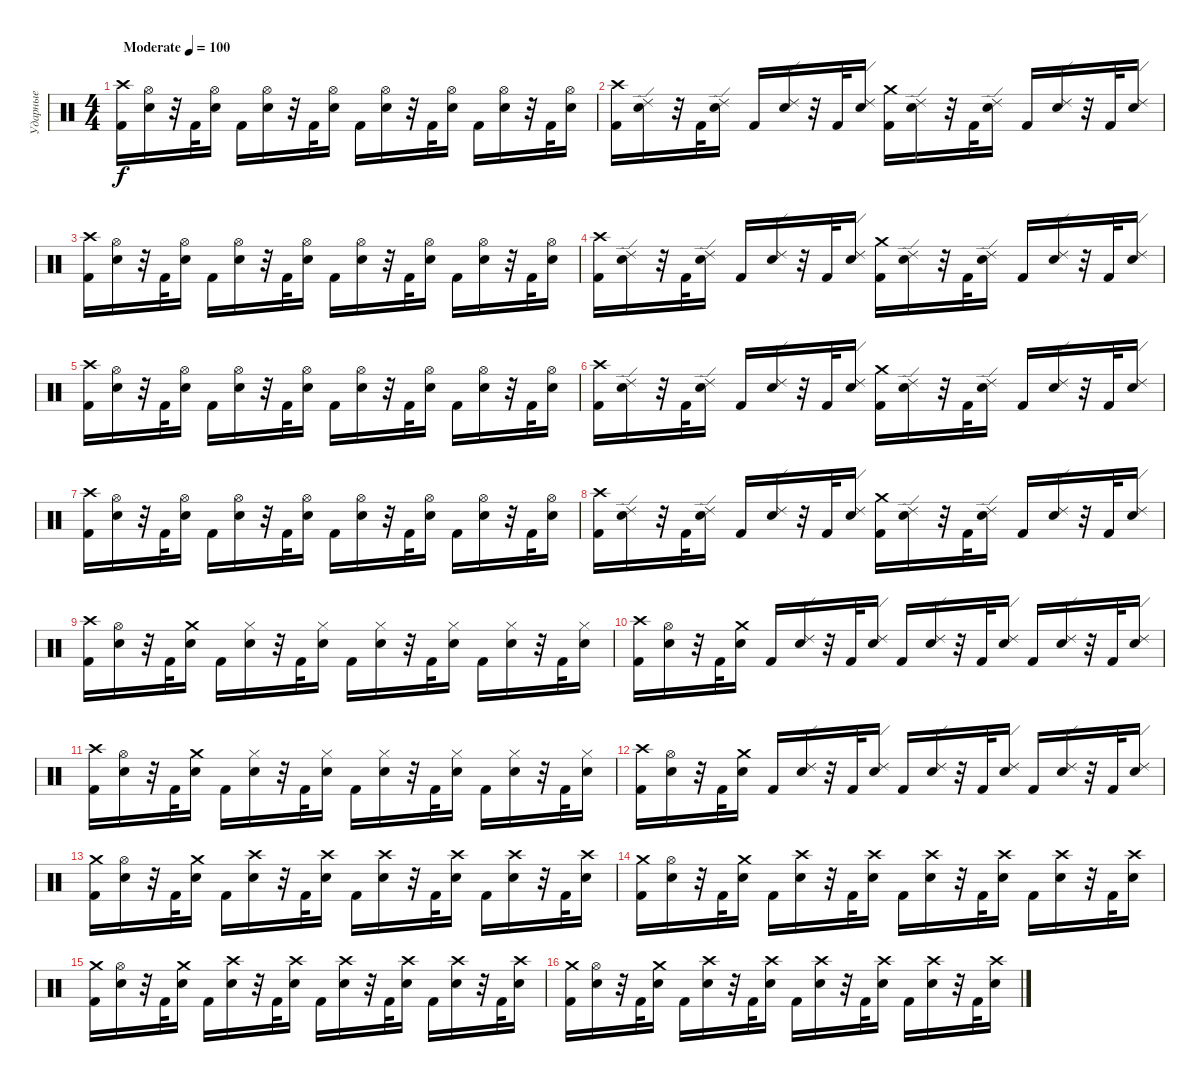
\track ("Ударные" "Ударные") {instrument percussion}
\staff {score}
\articulation defaults
\ts (4 4)
\tempo (100 "Moderate")
\clef neutral
\ks c
("Crash high (hit)" "Kick (hit) 2").16{dy f} ("Hi-Hat (open)" "Electric Snare (hit)").16 r.32 "Kick (hit) 2".32 ("Hi-Hat (open)" "Electric Snare (hit)").16 "Kick (hit) 2".16 ("Hi-Hat (open)" "Electric Snare (hit)").16 r.32 "Kick (hit) 2".32 ("Hi-Hat (open)" "Electric Snare (hit)").16 "Kick (hit) 2".16 ("Hi-Hat (open)" "Electric Snare (hit)").16 r.32 "Kick (hit) 2".32 ("Hi-Hat (open)" "Electric Snare (hit)").16 "Kick (hit) 2".16 ("Hi-Hat (open)" "Electric Snare (hit)").16 r.32 "Kick (hit) 2".32 ("Hi-Hat (open)" "Electric Snare (hit)").16 |
("Crash high (hit)" "Kick (hit) 2").16 ("Ride (edge) 2" "Electric Snare (hit)").16 r.32 "Kick (hit) 2".32 ("Ride (edge) 2" "Electric Snare (hit)").16 "Kick (hit) 2".16 ("Ride (edge) 2" "Electric Snare (hit)").16 r.32 "Kick (hit) 2".32 ("Ride (edge) 2" "Electric Snare (hit)").16 ("Crash medium (hit)" "Kick (hit) 2").16 ("Ride (edge) 2" "Electric Snare (hit)").16 r.32 "Kick (hit) 2".32 ("Ride (edge) 2" "Electric Snare (hit)").16 "Kick (hit) 2".16 ("Ride (edge) 2" "Electric Snare (hit)").16 r.32 "Kick (hit) 2".32 ("Ride (edge) 2" "Electric Snare (hit)").16 |
("Crash high (hit)" "Kick (hit) 2").16 ("Hi-Hat (open)" "Electric Snare (hit)").16 r.32 "Kick (hit) 2".32 ("Hi-Hat (open)" "Electric Snare (hit)").16 "Kick (hit) 2".16 ("Hi-Hat (open)" "Electric Snare (hit)").16 r.32 "Kick (hit) 2".32 ("Hi-Hat (open)" "Electric Snare (hit)").16 "Kick (hit) 2".16 ("Hi-Hat (open)" "Electric Snare (hit)").16 r.32 "Kick (hit) 2".32 ("Hi-Hat (open)" "Electric Snare (hit)").16 "Kick (hit) 2".16 ("Hi-Hat (open)" "Electric Snare (hit)").16 r.32 "Kick (hit) 2".32 ("Hi-Hat (open)" "Electric Snare (hit)").16 |
("Crash high (hit)" "Kick (hit) 2").16 ("Ride (edge) 2" "Electric Snare (hit)").16 r.32 "Kick (hit) 2".32 ("Ride (edge) 2" "Electric Snare (hit)").16 "Kick (hit) 2".16 ("Ride (edge) 2" "Electric Snare (hit)").16 r.32 "Kick (hit) 2".32 ("Ride (edge) 2" "Electric Snare (hit)").16 ("Crash medium (hit)" "Kick (hit) 2").16 ("Ride (edge) 2" "Electric Snare (hit)").16 r.32 "Kick (hit) 2".32 ("Ride (edge) 2" "Electric Snare (hit)").16 "Kick (hit) 2".16 ("Ride (edge) 2" "Electric Snare (hit)").16 r.32 "Kick (hit) 2".32 ("Ride (edge) 2" "Electric Snare (hit)").16 |
("Crash high (hit)" "Kick (hit) 2").16 ("Hi-Hat (open)" "Electric Snare (hit)").16 r.32 "Kick (hit) 2".32 ("Hi-Hat (open)" "Electric Snare (hit)").16 "Kick (hit) 2".16 ("Hi-Hat (open)" "Electric Snare (hit)").16 r.32 "Kick (hit) 2".32 ("Hi-Hat (open)" "Electric Snare (hit)").16 "Kick (hit) 2".16 ("Hi-Hat (open)" "Electric Snare (hit)").16 r.32 "Kick (hit) 2".32 ("Hi-Hat (open)" "Electric Snare (hit)").16 "Kick (hit) 2".16 ("Hi-Hat (open)" "Electric Snare (hit)").16 r.32 "Kick (hit) 2".32 ("Hi-Hat (open)" "Electric Snare (hit)").16 |
("Crash high (hit)" "Kick (hit) 2").16 ("Ride (edge) 2" "Electric Snare (hit)").16 r.32 "Kick (hit) 2".32 ("Ride (edge) 2" "Electric Snare (hit)").16 "Kick (hit) 2".16 ("Ride (edge) 2" "Electric Snare (hit)").16 r.32 "Kick (hit) 2".32 ("Ride (edge) 2" "Electric Snare (hit)").16 ("Crash medium (hit)" "Kick (hit) 2").16 ("Ride (edge) 2" "Electric Snare (hit)").16 r.32 "Kick (hit) 2".32 ("Ride (edge) 2" "Electric Snare (hit)").16 "Kick (hit) 2".16 ("Ride (edge) 2" "Electric Snare (hit)").16 r.32 "Kick (hit) 2".32 ("Ride (edge) 2" "Electric Snare (hit)").16 |
("Crash high (hit)" "Kick (hit) 2").16 ("Hi-Hat (open)" "Electric Snare (hit)").16 r.32 "Kick (hit) 2".32 ("Hi-Hat (open)" "Electric Snare (hit)").16 "Kick (hit) 2".16 ("Hi-Hat (open)" "Electric Snare (hit)").16 r.32 "Kick (hit) 2".32 ("Hi-Hat (open)" "Electric Snare (hit)").16 "Kick (hit) 2".16 ("Hi-Hat (open)" "Electric Snare (hit)").16 r.32 "Kick (hit) 2".32 ("Hi-Hat (open)" "Electric Snare (hit)").16 "Kick (hit) 2".16 ("Hi-Hat (open)" "Electric Snare (hit)").16 r.32 "Kick (hit) 2".32 ("Hi-Hat (open)" "Electric Snare (hit)").16 |
("Crash high (hit)" "Kick (hit) 2").16 ("Ride (edge) 2" "Electric Snare (hit)").16 r.32 "Kick (hit) 2".32 ("Ride (edge) 2" "Electric Snare (hit)").16 "Kick (hit) 2".16 ("Ride (edge) 2" "Electric Snare (hit)").16 r.32 "Kick (hit) 2".32 ("Ride (edge) 2" "Electric Snare (hit)").16 ("Crash medium (hit)" "Kick (hit) 2").16 ("Ride (edge) 2" "Electric Snare (hit)").16 r.32 "Kick (hit) 2".32 ("Ride (edge) 2" "Electric Snare (hit)").16 "Kick (hit) 2".16 ("Ride (edge) 2" "Electric Snare (hit)").16 r.32 "Kick (hit) 2".32 ("Ride (edge) 2" "Electric Snare (hit)").16 |
("Crash high (hit)" "Kick (hit) 2").16 ("Hi-Hat (open)" "Electric Snare (hit)").16 r.32 "Kick (hit) 2".32 ("Crash medium (hit)" "Electric Snare (hit)").16 "Kick (hit) 2".16 ("Hi-Hat (closed)" "Electric Snare (hit)").16 r.32 "Kick (hit) 2".32 ("Hi-Hat (closed)" "Electric Snare (hit)").16 "Kick (hit) 2".16 ("Hi-Hat (closed)" "Electric Snare (hit)").16 r.32 "Kick (hit) 2".32 ("Hi-Hat (closed)" "Electric Snare (hit)").16 "Kick (hit) 2".16 ("Hi-Hat (closed)" "Electric Snare (hit)").16 r.32 "Kick (hit) 2".32 ("Hi-Hat (closed)" "Electric Snare (hit)").16 |
("Crash high (hit)" "Kick (hit) 2").16 ("Hi-Hat (open)" "Electric Snare (hit)").16 r.32 "Kick (hit) 2".32 ("Crash medium (hit)" "Electric Snare (hit)").16 "Kick (hit) 2".16 ("Ride (edge) 2" "Electric Snare (hit)").16 r.32 "Kick (hit) 2".32 ("Ride (edge) 2" "Electric Snare (hit)").16 "Kick (hit) 2".16 ("Ride (edge) 2" "Electric Snare (hit)").16 r.32 "Kick (hit) 2".32 ("Ride (edge) 2" "Electric Snare (hit)").16 "Kick (hit) 2".16 ("Ride (edge) 2" "Electric Snare (hit)").16 r.32 "Kick (hit) 2".32 ("Ride (edge) 2" "Electric Snare (hit)").16 |
("Crash high (hit)" "Kick (hit) 2").16 ("Hi-Hat (open)" "Electric Snare (hit)").16 r.32 "Kick (hit) 2".32 ("Crash medium (hit)" "Electric Snare (hit)").16 "Kick (hit) 2".16 ("Hi-Hat (closed)" "Electric Snare (hit)").16 r.32 "Kick (hit) 2".32 ("Hi-Hat (closed)" "Electric Snare (hit)").16 "Kick (hit) 2".16 ("Hi-Hat (closed)" "Electric Snare (hit)").16 r.32 "Kick (hit) 2".32 ("Hi-Hat (closed)" "Electric Snare (hit)").16 "Kick (hit) 2".16 ("Hi-Hat (closed)" "Electric Snare (hit)").16 r.32 "Kick (hit) 2".32 ("Hi-Hat (closed)" "Electric Snare (hit)").16 |
("Crash high (hit)" "Kick (hit) 2").16 ("Hi-Hat (open)" "Electric Snare (hit)").16 r.32 "Kick (hit) 2".32 ("Crash medium (hit)" "Electric Snare (hit)").16 "Kick (hit) 2".16 ("Ride (edge) 2" "Electric Snare (hit)").16 r.32 "Kick (hit) 2".32 ("Ride (edge) 2" "Electric Snare (hit)").16 "Kick (hit) 2".16 ("Ride (edge) 2" "Electric Snare (hit)").16 r.32 "Kick (hit) 2".32 ("Ride (edge) 2" "Electric Snare (hit)").16 "Kick (hit) 2".16 ("Ride (edge) 2" "Electric Snare (hit)").16 r.32 "Kick (hit) 2".32 ("Ride (edge) 2" "Electric Snare (hit)").16 |
("Crash medium (hit)" "Kick (hit) 2").16 ("Hi-Hat (open)" "Electric Snare (hit)").16 r.32 "Kick (hit) 2".32 ("Crash medium (hit)" "Electric Snare (hit)").16 "Kick (hit) 2".16 ("Crash high (hit)" "Electric Snare (hit)").16 r.32 "Kick (hit) 2".32 ("Crash high (hit)" "Electric Snare (hit)").16 "Kick (hit) 2".16 ("Crash high (hit)" "Electric Snare (hit)").16 r.32 "Kick (hit) 2".32 ("Crash high (hit)" "Electric Snare (hit)").16 "Kick (hit) 2".16 ("Crash high (hit)" "Electric Snare (hit)").16 r.32 "Kick (hit) 2".32 ("Crash high (hit)" "Electric Snare (hit)").16 |
("Crash medium (hit)" "Kick (hit) 2").16 ("Hi-Hat (open)" "Electric Snare (hit)").16 r.32 "Kick (hit) 2".32 ("Crash medium (hit)" "Electric Snare (hit)").16 "Kick (hit) 2".16 ("Crash high (hit)" "Electric Snare (hit)").16 r.32 "Kick (hit) 2".32 ("Crash high (hit)" "Electric Snare (hit)").16 "Kick (hit) 2".16 ("Crash high (hit)" "Electric Snare (hit)").16 r.32 "Kick (hit) 2".32 ("Crash high (hit)" "Electric Snare (hit)").16 "Kick (hit) 2".16 ("Crash high (hit)" "Electric Snare (hit)").16 r.32 "Kick (hit) 2".32 ("Crash high (hit)" "Electric Snare (hit)").16 |
("Crash medium (hit)" "Kick (hit) 2").16 ("Hi-Hat (open)" "Electric Snare (hit)").16 r.32 "Kick (hit) 2".32 ("Crash medium (hit)" "Electric Snare (hit)").16 "Kick (hit) 2".16 ("Crash high (hit)" "Electric Snare (hit)").16 r.32 "Kick (hit) 2".32 ("Crash high (hit)" "Electric Snare (hit)").16 "Kick (hit) 2".16 ("Crash high (hit)" "Electric Snare (hit)").16 r.32 "Kick (hit) 2".32 ("Crash high (hit)" "Electric Snare (hit)").16 "Kick (hit) 2".16 ("Crash high (hit)" "Electric Snare (hit)").16 r.32 "Kick (hit) 2".32 ("Crash high (hit)" "Electric Snare (hit)").16 |
("Crash medium (hit)" "Kick (hit) 2").16 ("Hi-Hat (open)" "Electric Snare (hit)").16 r.32 "Kick (hit) 2".32 ("Crash medium (hit)" "Electric Snare (hit)").16 "Kick (hit) 2".16 ("Crash high (hit)" "Electric Snare (hit)").16 r.32 "Kick (hit) 2".32 ("Crash high (hit)" "Electric Snare (hit)").16 "Kick (hit) 2".16 ("Crash high (hit)" "Electric Snare (hit)").16 r.32 "Kick (hit) 2".32 ("Crash high (hit)" "Electric Snare (hit)").16 "Kick (hit) 2".16 ("Crash high (hit)" "Electric Snare (hit)").16 r.32 "Kick (hit) 2".32 ("Crash high (hit)" "Electric Snare (hit)").16
